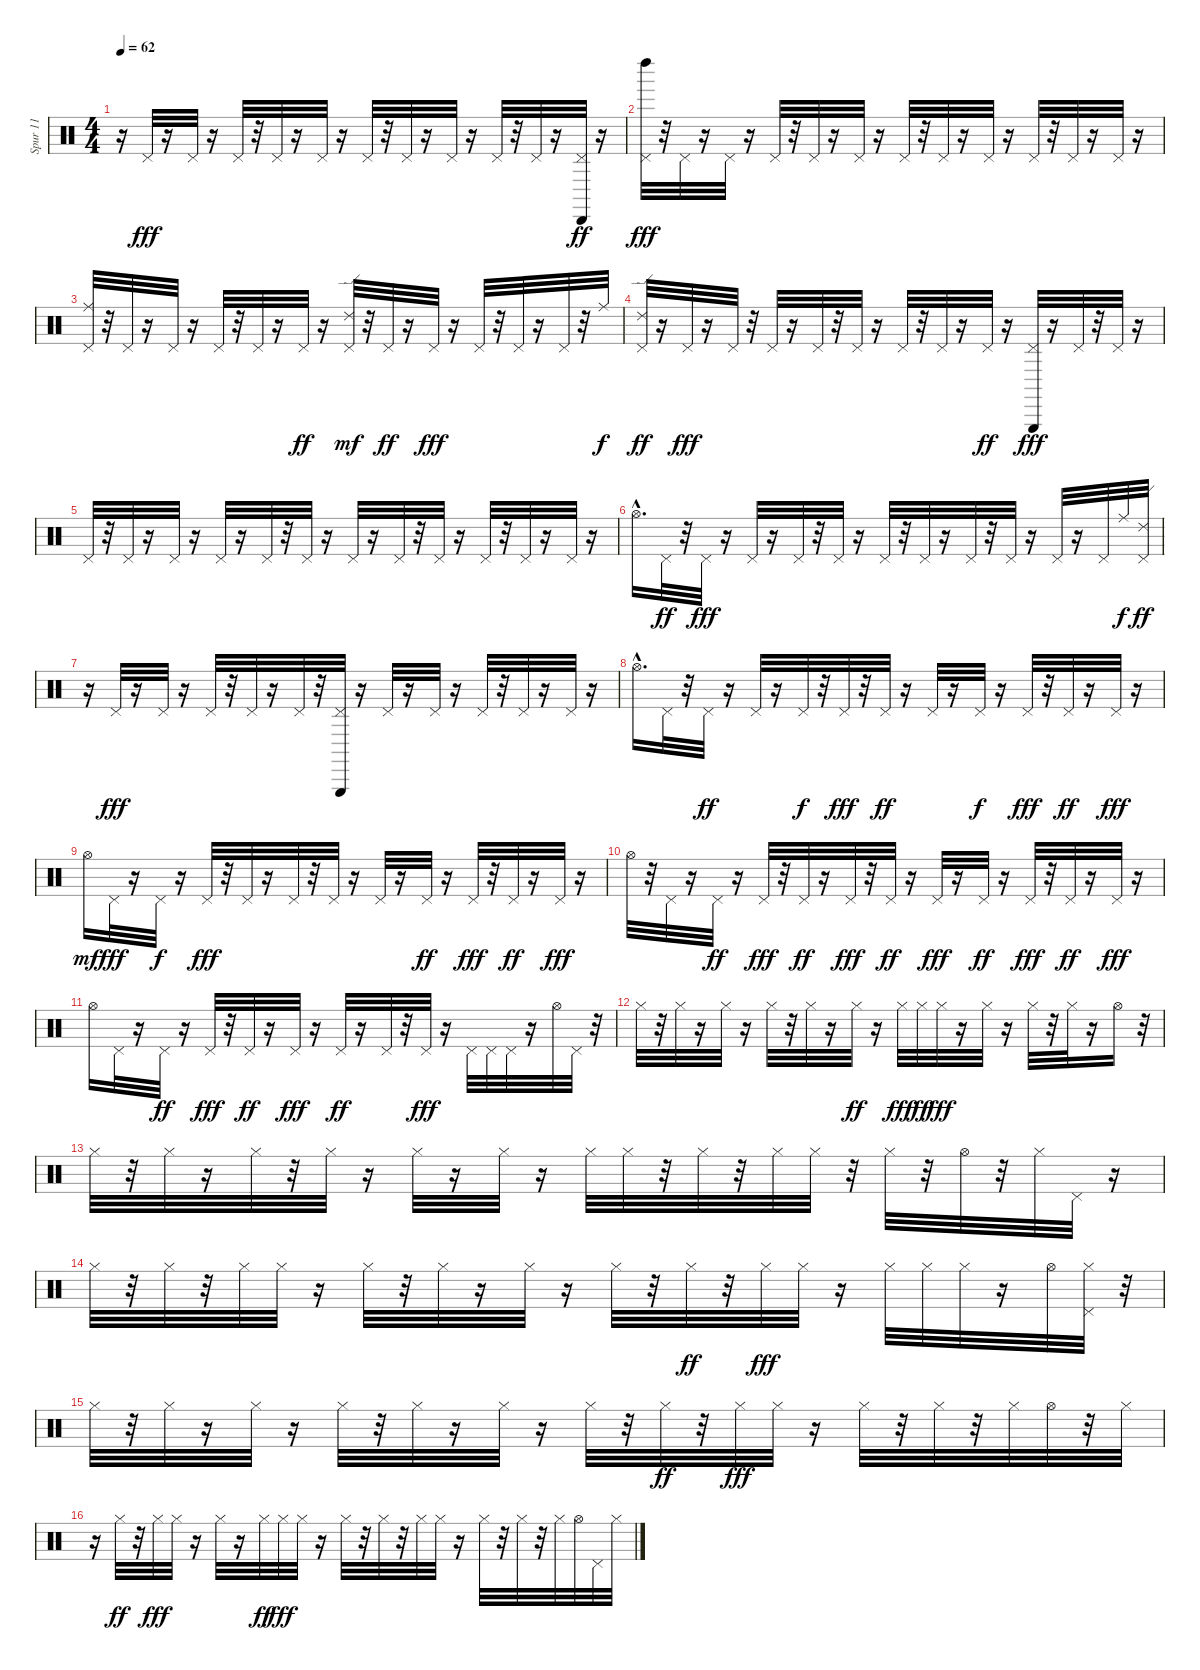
\track ("Spur 11" "Spur 11") {instrument percussion}
\staff {score}
\articulation defaults
\ts (4 4)
\tempo 62
\clef neutral
\ks c
r.16{dy ff} "Pedal Hi-Hat (hit)".32{dy fff} r.16 "Pedal Hi-Hat (hit)".32 r.16 "Pedal Hi-Hat (hit)".32 r.32 "Pedal Hi-Hat (hit)".32 r.16 "Pedal Hi-Hat (hit)".32 r.16 "Pedal Hi-Hat (hit)".32 r.32 "Pedal Hi-Hat (hit)".32 r.16 "Pedal Hi-Hat (hit)".32 r.16 "Pedal Hi-Hat (hit)".32 r.32 "Pedal Hi-Hat (hit)".32 r.16 ("Pedal Hi-Hat (hit)" "Cabasa (hit)").32{dy ff} r.16 |
("Left Maraca (hit)" "Pedal Hi-Hat (hit)").32{dy fff} r.32 "Pedal Hi-Hat (hit)".32 r.16 "Pedal Hi-Hat (hit)".32 r.16 "Pedal Hi-Hat (hit)".32 r.32 "Pedal Hi-Hat (hit)".32 r.16 "Pedal Hi-Hat (hit)".32 r.16 "Pedal Hi-Hat (hit)".32 r.32 "Pedal Hi-Hat (hit)".32 r.16 "Pedal Hi-Hat (hit)".32 r.16 "Pedal Hi-Hat (hit)".32 r.32 "Pedal Hi-Hat (hit)".32 r.16 "Pedal Hi-Hat (hit)".32 r.16 |
("Ride (middle)" "Pedal Hi-Hat (hit)").32 r.32 "Pedal Hi-Hat (hit)".32 r.16 "Pedal Hi-Hat (hit)".32 r.16 "Pedal Hi-Hat (hit)".32 r.32 "Pedal Hi-Hat (hit)".32 r.16 "Pedal Hi-Hat (hit)".32{dy ff} r.16 ("Pedal Hi-Hat (hit)" "Ride (edge) 2").32{dy mf} r.32 "Pedal Hi-Hat (hit)".32{dy ff} r.16 "Pedal Hi-Hat (hit)".32{dy fff} r.16 "Pedal Hi-Hat (hit)".32 r.32 "Pedal Hi-Hat (hit)".32 r.16 "Pedal Hi-Hat (hit)".32 r.32 "Ride (middle)".32{dy f} |
("Ride (edge) 2" "Pedal Hi-Hat (hit)").32{dy ff} r.16 "Pedal Hi-Hat (hit)".32{dy fff} r.16 "Pedal Hi-Hat (hit)".32 r.32 "Pedal Hi-Hat (hit)".32 r.16 "Pedal Hi-Hat (hit)".32 r.32 "Pedal Hi-Hat (hit)".32 r.16 "Pedal Hi-Hat (hit)".32 r.32 "Pedal Hi-Hat (hit)".32 r.16 "Pedal Hi-Hat (hit)".32{dy ff} r.16 ("Triangle (hit)" "Pedal Hi-Hat (hit)").32{dy fff} r.16 "Pedal Hi-Hat (hit)".32 r.32 "Pedal Hi-Hat (hit)".32 r.16 |
"Pedal Hi-Hat (hit)".32 r.32 "Pedal Hi-Hat (hit)".32 r.16 "Pedal Hi-Hat (hit)".32 r.16 "Pedal Hi-Hat (hit)".32 r.16 "Pedal Hi-Hat (hit)".32 r.32 "Pedal Hi-Hat (hit)".32 r.16 "Pedal Hi-Hat (hit)".32 r.16 "Pedal Hi-Hat (hit)".32 r.32 "Pedal Hi-Hat (hit)".32 r.16 "Pedal Hi-Hat (hit)".32 r.32 "Pedal Hi-Hat (hit)".32 r.16 "Pedal Hi-Hat (hit)".32 r.16 |
"Hi-Hat (open)"{hac}.16{d} "Pedal Hi-Hat (hit)".32{dy ff} r.32 "Pedal Hi-Hat (hit)".32{dy fff} r.16 "Pedal Hi-Hat (hit)".32 r.16 "Pedal Hi-Hat (hit)".32 r.32 "Pedal Hi-Hat (hit)".32 r.16 "Pedal Hi-Hat (hit)".32 r.32 "Pedal Hi-Hat (hit)".32 r.16 "Pedal Hi-Hat (hit)".32 r.32 "Pedal Hi-Hat (hit)".32 r.16 "Pedal Hi-Hat (hit)".32 r.16 "Pedal Hi-Hat (hit)".32 "Ride (middle)".32{dy f} ("Ride (edge) 2" "Pedal Hi-Hat (hit)").32{dy ff} |
r.16 "Pedal Hi-Hat (hit)".32{dy fff} r.16 "Pedal Hi-Hat (hit)".32 r.16 "Pedal Hi-Hat (hit)".32 r.32 "Pedal Hi-Hat (hit)".32 r.16 "Pedal Hi-Hat (hit)".32 r.32 ("Triangle (hit)" "Pedal Hi-Hat (hit)").32 r.16 "Pedal Hi-Hat (hit)".32 r.16 "Pedal Hi-Hat (hit)".32 r.16 "Pedal Hi-Hat (hit)".32 r.32 "Pedal Hi-Hat (hit)".32 r.16 "Pedal Hi-Hat (hit)".32 r.16 |
"Hi-Hat (open)"{hac}.16{d} "Pedal Hi-Hat (hit)".32 r.32 "Pedal Hi-Hat (hit)".32{dy ff} r.16 "Pedal Hi-Hat (hit)".32 r.16 "Pedal Hi-Hat (hit)".32{dy f} r.32 "Pedal Hi-Hat (hit)".32{dy fff} r.32 "Pedal Hi-Hat (hit)".32{dy ff} r.16 "Pedal Hi-Hat (hit)".32 r.16 "Pedal Hi-Hat (hit)".32{dy f} r.16 "Pedal Hi-Hat (hit)".32{dy fff} r.32 "Pedal Hi-Hat (hit)".32{dy ff} r.16 "Pedal Hi-Hat (hit)".32{dy fff} r.16 |
"Hi-Hat (open)".16{dy mf} "Pedal Hi-Hat (hit)".32{dy fff} r.16 "Pedal Hi-Hat (hit)".32{dy f} r.16 "Pedal Hi-Hat (hit)".32{dy fff} r.32 "Pedal Hi-Hat (hit)".32 r.16 "Pedal Hi-Hat (hit)".32 r.32 "Pedal Hi-Hat (hit)".32 r.16 "Pedal Hi-Hat (hit)".32 r.16 "Pedal Hi-Hat (hit)".32{dy ff} r.16 "Pedal Hi-Hat (hit)".32{dy fff} r.32 "Pedal Hi-Hat (hit)".32{dy ff} r.16 "Pedal Hi-Hat (hit)".32{dy fff} r.16 |
"Hi-Hat (open)".32 r.32 "Pedal Hi-Hat (hit)".32 r.16 "Pedal Hi-Hat (hit)".32{dy ff} r.16 "Pedal Hi-Hat (hit)".32{dy fff} r.32 "Pedal Hi-Hat (hit)".32{dy ff} r.16 "Pedal Hi-Hat (hit)".32{dy fff} r.32 "Pedal Hi-Hat (hit)".32{dy ff} r.16 "Pedal Hi-Hat (hit)".32{dy fff} r.16 "Pedal Hi-Hat (hit)".32{dy ff} r.16 "Pedal Hi-Hat (hit)".32{dy fff} r.32 "Pedal Hi-Hat (hit)".32{dy ff} r.16 "Pedal Hi-Hat (hit)".32{dy fff} r.16 |
"Hi-Hat (open)".16 "Pedal Hi-Hat (hit)".32 r.16 "Pedal Hi-Hat (hit)".32{dy ff} r.16 "Pedal Hi-Hat (hit)".32{dy fff} r.32 "Pedal Hi-Hat (hit)".32{dy ff} r.16 "Pedal Hi-Hat (hit)".32{dy fff} r.16 "Pedal Hi-Hat (hit)".32{dy ff} r.16 "Pedal Hi-Hat (hit)".32 r.32 "Pedal Hi-Hat (hit)".32{dy fff} r.16 "Pedal Hi-Hat (hit)".32 "Pedal Hi-Hat (hit)".32 "Pedal Hi-Hat (hit)".32 r.16 "Hi-Hat (open)".32 "Pedal Hi-Hat (hit)".32 r.32 |
"Hi-Hat (closed)".32 r.32 "Hi-Hat (closed)".32 r.16 "Hi-Hat (closed)".32 r.16 "Hi-Hat (closed)".32 r.32 "Hi-Hat (closed)".32 r.16 "Hi-Hat (closed)".32{dy ff} r.16 "Hi-Hat (closed)".32{dy fff} "Hi-Hat (closed)".32{dy ff} "Hi-Hat (closed)".32{dy fff} r.16 "Hi-Hat (closed)".32 r.16 "Hi-Hat (closed)".32 r.32 "Hi-Hat (closed)".32 r.16 "Hi-Hat (open)".16 r.32 |
"Hi-Hat (closed)".32 r.32 "Hi-Hat (closed)".32 r.16 "Hi-Hat (closed)".32 r.32 "Hi-Hat (closed)".32 r.16 "Hi-Hat (closed)".32 r.16 "Hi-Hat (closed)".32 r.16 "Hi-Hat (closed)".32 "Hi-Hat (closed)".32 r.32 "Hi-Hat (closed)".32 r.32 "Hi-Hat (closed)".32 "Hi-Hat (closed)".32 r.32 "Hi-Hat (closed)".32 r.32 "Hi-Hat (open)".32 r.32 "Hi-Hat (closed)".32 "Pedal Hi-Hat (hit)".32 r.16 |
"Hi-Hat (closed)".32 r.32 "Hi-Hat (closed)".32 r.32 "Hi-Hat (closed)".32 "Hi-Hat (closed)".32 r.16 "Hi-Hat (closed)".32 r.32 "Hi-Hat (closed)".32 r.16 "Hi-Hat (closed)".32 r.16 "Hi-Hat (closed)".32 r.32 "Hi-Hat (closed)".32{dy ff} r.32 "Hi-Hat (closed)".32{dy fff} "Hi-Hat (closed)".32 r.16 "Hi-Hat (closed)".32 "Hi-Hat (closed)".32 "Hi-Hat (closed)".32 r.16 "Hi-Hat (open)".32 ("Hi-Hat (closed)" "Pedal Hi-Hat (hit)").32 r.32 |
"Hi-Hat (closed)".32 r.32 "Hi-Hat (closed)".32 r.16 "Hi-Hat (closed)".32 r.16 "Hi-Hat (closed)".32 r.32 "Hi-Hat (closed)".32 r.16 "Hi-Hat (closed)".32 r.16 "Hi-Hat (closed)".32 r.32 "Hi-Hat (closed)".32{dy ff} r.32 "Hi-Hat (closed)".32{dy fff} "Hi-Hat (closed)".32 r.16 "Hi-Hat (closed)".32 r.32 "Hi-Hat (closed)".32 r.32 "Hi-Hat (closed)".32 "Hi-Hat (open)".32 r.32 "Hi-Hat (closed)".32 |
r.16 "Hi-Hat (closed)".32{dy ff} r.32 "Hi-Hat (closed)".32{dy fff} "Hi-Hat (closed)".32 r.16 "Hi-Hat (closed)".32 r.16 "Hi-Hat (closed)".32{dy ff} "Hi-Hat (closed)".32{dy fff} "Hi-Hat (closed)".32 r.16 "Hi-Hat (closed)".32 r.32 "Hi-Hat (closed)".32 r.32 "Hi-Hat (closed)".32 "Hi-Hat (closed)".32 r.16 "Hi-Hat (closed)".32 r.32 "Hi-Hat (closed)".32 r.32 "Hi-Hat (closed)".32 "Hi-Hat (open)".32 "Pedal Hi-Hat (hit)".32 "Hi-Hat (closed)".32
